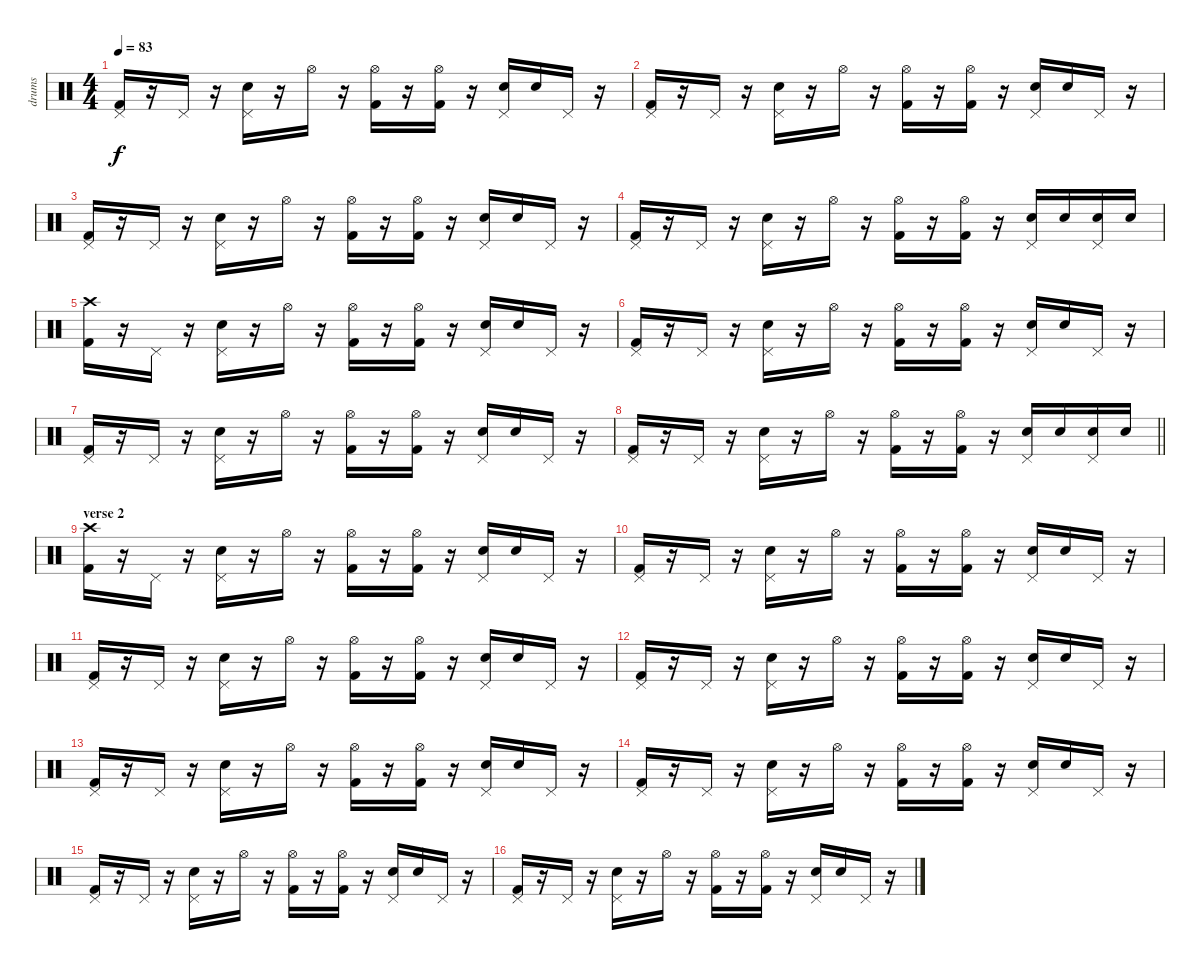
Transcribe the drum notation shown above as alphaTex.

\track ("drums" "drums") {instrument percussion}
\staff {score}
\articulation defaults
\ts (4 4)
\tempo 83
\clef neutral
\ks c
("Kick (hit) 2" "Pedal Hi-Hat (hit)").16{dy f} r.16 "Pedal Hi-Hat (hit)".16 r.16 ("Electric Snare (hit)" "Pedal Hi-Hat (hit)").16 r.16 "Hi-Hat (open)".16 r.16 ("Kick (hit) 2" "Hi-Hat (open)").16 r.16 ("Kick (hit) 2" "Hi-Hat (open)").16 r.16 ("Electric Snare (hit)" "Pedal Hi-Hat (hit)").16 "Electric Snare (hit)".16 "Pedal Hi-Hat (hit)".16 r.16 |
("Kick (hit) 2" "Pedal Hi-Hat (hit)").16 r.16 "Pedal Hi-Hat (hit)".16 r.16 ("Electric Snare (hit)" "Pedal Hi-Hat (hit)").16 r.16 "Hi-Hat (open)".16 r.16 ("Kick (hit) 2" "Hi-Hat (open)").16 r.16 ("Kick (hit) 2" "Hi-Hat (open)").16 r.16 ("Electric Snare (hit)" "Pedal Hi-Hat (hit)").16 "Electric Snare (hit)".16 "Pedal Hi-Hat (hit)".16 r.16 |
("Kick (hit) 2" "Pedal Hi-Hat (hit)").16 r.16 "Pedal Hi-Hat (hit)".16 r.16 ("Electric Snare (hit)" "Pedal Hi-Hat (hit)").16 r.16 "Hi-Hat (open)".16 r.16 ("Kick (hit) 2" "Hi-Hat (open)").16 r.16 ("Kick (hit) 2" "Hi-Hat (open)").16 r.16 ("Electric Snare (hit)" "Pedal Hi-Hat (hit)").16 "Electric Snare (hit)".16 "Pedal Hi-Hat (hit)".16 r.16 |
("Kick (hit) 2" "Pedal Hi-Hat (hit)").16 r.16 "Pedal Hi-Hat (hit)".16 r.16 ("Electric Snare (hit)" "Pedal Hi-Hat (hit)").16 r.16 "Hi-Hat (open)".16 r.16 ("Kick (hit) 2" "Hi-Hat (open)").16 r.16 ("Kick (hit) 2" "Hi-Hat (open)").16 r.16 ("Electric Snare (hit)" "Pedal Hi-Hat (hit)").16 "Electric Snare (hit)".16 ("Electric Snare (hit)" "Pedal Hi-Hat (hit)").16 "Electric Snare (hit)".16 |
("Kick (hit) 2" "Crash high (hit)").16 r.16 "Pedal Hi-Hat (hit)".16 r.16 ("Electric Snare (hit)" "Pedal Hi-Hat (hit)").16 r.16 "Hi-Hat (open)".16 r.16 ("Kick (hit) 2" "Hi-Hat (open)").16 r.16 ("Kick (hit) 2" "Hi-Hat (open)").16 r.16 ("Electric Snare (hit)" "Pedal Hi-Hat (hit)").16 "Electric Snare (hit)".16 "Pedal Hi-Hat (hit)".16 r.16 |
("Kick (hit) 2" "Pedal Hi-Hat (hit)").16 r.16 "Pedal Hi-Hat (hit)".16 r.16 ("Electric Snare (hit)" "Pedal Hi-Hat (hit)").16 r.16 "Hi-Hat (open)".16 r.16 ("Kick (hit) 2" "Hi-Hat (open)").16 r.16 ("Kick (hit) 2" "Hi-Hat (open)").16 r.16 ("Electric Snare (hit)" "Pedal Hi-Hat (hit)").16 "Electric Snare (hit)".16 "Pedal Hi-Hat (hit)".16 r.16 |
("Kick (hit) 2" "Pedal Hi-Hat (hit)").16 r.16 "Pedal Hi-Hat (hit)".16 r.16 ("Electric Snare (hit)" "Pedal Hi-Hat (hit)").16 r.16 "Hi-Hat (open)".16 r.16 ("Kick (hit) 2" "Hi-Hat (open)").16 r.16 ("Kick (hit) 2" "Hi-Hat (open)").16 r.16 ("Electric Snare (hit)" "Pedal Hi-Hat (hit)").16 "Electric Snare (hit)".16 "Pedal Hi-Hat (hit)".16 r.16 |
\barLineRight lightlight
("Kick (hit) 2" "Pedal Hi-Hat (hit)").16 r.16 "Pedal Hi-Hat (hit)".16 r.16 ("Electric Snare (hit)" "Pedal Hi-Hat (hit)").16 r.16 "Hi-Hat (open)".16 r.16 ("Kick (hit) 2" "Hi-Hat (open)").16 r.16 ("Kick (hit) 2" "Hi-Hat (open)").16 r.16 ("Electric Snare (hit)" "Pedal Hi-Hat (hit)").16 "Electric Snare (hit)".16 ("Electric Snare (hit)" "Pedal Hi-Hat (hit)").16 "Electric Snare (hit)".16 |
\section ("" "verse 2")
("Kick (hit) 2" "Crash high (hit)").16 r.16 "Pedal Hi-Hat (hit)".16 r.16 ("Electric Snare (hit)" "Pedal Hi-Hat (hit)").16 r.16 "Hi-Hat (open)".16 r.16 ("Kick (hit) 2" "Hi-Hat (open)").16 r.16 ("Kick (hit) 2" "Hi-Hat (open)").16 r.16 ("Electric Snare (hit)" "Pedal Hi-Hat (hit)").16 "Electric Snare (hit)".16 "Pedal Hi-Hat (hit)".16 r.16 |
("Kick (hit) 2" "Pedal Hi-Hat (hit)").16 r.16 "Pedal Hi-Hat (hit)".16 r.16 ("Electric Snare (hit)" "Pedal Hi-Hat (hit)").16 r.16 "Hi-Hat (open)".16 r.16 ("Kick (hit) 2" "Hi-Hat (open)").16 r.16 ("Kick (hit) 2" "Hi-Hat (open)").16 r.16 ("Electric Snare (hit)" "Pedal Hi-Hat (hit)").16 "Electric Snare (hit)".16 "Pedal Hi-Hat (hit)".16 r.16 |
("Kick (hit) 2" "Pedal Hi-Hat (hit)").16 r.16 "Pedal Hi-Hat (hit)".16 r.16 ("Electric Snare (hit)" "Pedal Hi-Hat (hit)").16 r.16 "Hi-Hat (open)".16 r.16 ("Kick (hit) 2" "Hi-Hat (open)").16 r.16 ("Kick (hit) 2" "Hi-Hat (open)").16 r.16 ("Electric Snare (hit)" "Pedal Hi-Hat (hit)").16 "Electric Snare (hit)".16 "Pedal Hi-Hat (hit)".16 r.16 |
("Kick (hit) 2" "Pedal Hi-Hat (hit)").16 r.16 "Pedal Hi-Hat (hit)".16 r.16 ("Electric Snare (hit)" "Pedal Hi-Hat (hit)").16 r.16 "Hi-Hat (open)".16 r.16 ("Kick (hit) 2" "Hi-Hat (open)").16 r.16 ("Kick (hit) 2" "Hi-Hat (open)").16 r.16 ("Electric Snare (hit)" "Pedal Hi-Hat (hit)").16 "Electric Snare (hit)".16 "Pedal Hi-Hat (hit)".16 r.16 |
("Kick (hit) 2" "Pedal Hi-Hat (hit)").16 r.16 "Pedal Hi-Hat (hit)".16 r.16 ("Electric Snare (hit)" "Pedal Hi-Hat (hit)").16 r.16 "Hi-Hat (open)".16 r.16 ("Kick (hit) 2" "Hi-Hat (open)").16 r.16 ("Kick (hit) 2" "Hi-Hat (open)").16 r.16 ("Electric Snare (hit)" "Pedal Hi-Hat (hit)").16 "Electric Snare (hit)".16 "Pedal Hi-Hat (hit)".16 r.16 |
("Kick (hit) 2" "Pedal Hi-Hat (hit)").16 r.16 "Pedal Hi-Hat (hit)".16 r.16 ("Electric Snare (hit)" "Pedal Hi-Hat (hit)").16 r.16 "Hi-Hat (open)".16 r.16 ("Kick (hit) 2" "Hi-Hat (open)").16 r.16 ("Kick (hit) 2" "Hi-Hat (open)").16 r.16 ("Electric Snare (hit)" "Pedal Hi-Hat (hit)").16 "Electric Snare (hit)".16 "Pedal Hi-Hat (hit)".16 r.16 |
("Kick (hit) 2" "Pedal Hi-Hat (hit)").16 r.16 "Pedal Hi-Hat (hit)".16 r.16 ("Electric Snare (hit)" "Pedal Hi-Hat (hit)").16 r.16 "Hi-Hat (open)".16 r.16 ("Kick (hit) 2" "Hi-Hat (open)").16 r.16 ("Kick (hit) 2" "Hi-Hat (open)").16 r.16 ("Electric Snare (hit)" "Pedal Hi-Hat (hit)").16 "Electric Snare (hit)".16 "Pedal Hi-Hat (hit)".16 r.16 |
("Kick (hit) 2" "Pedal Hi-Hat (hit)").16 r.16 "Pedal Hi-Hat (hit)".16 r.16 ("Electric Snare (hit)" "Pedal Hi-Hat (hit)").16 r.16 "Hi-Hat (open)".16 r.16 ("Kick (hit) 2" "Hi-Hat (open)").16 r.16 ("Kick (hit) 2" "Hi-Hat (open)").16 r.16 ("Electric Snare (hit)" "Pedal Hi-Hat (hit)").16 "Electric Snare (hit)".16 "Pedal Hi-Hat (hit)".16 r.16
